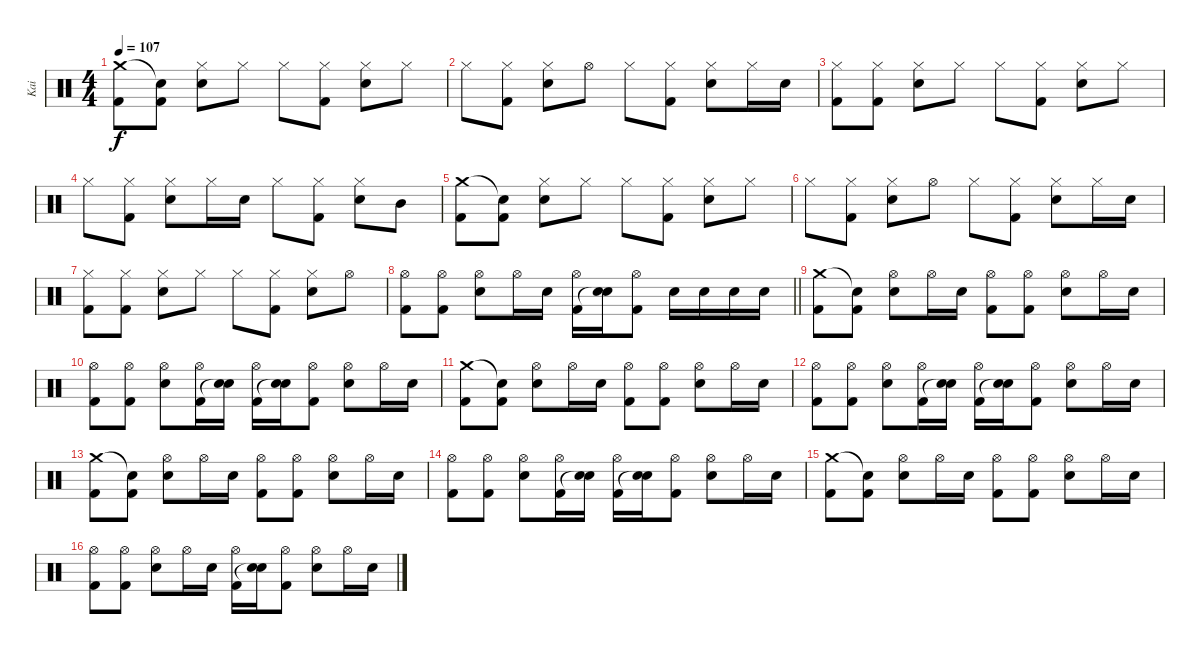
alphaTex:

\track ("Kai" "Kai") {instrument percussion}
\staff {score}
\articulation defaults
\ts (4 4)
\tempo 107
\clef neutral
\ks c
("Crash medium (hit)" "Kick (hit) 2").8{dy f} ("Snare (hit)"{t} "Kick (hit) 2").8 ("Hi-Hat (closed)" "Snare (hit) 2").8 "Hi-Hat (closed)".8 "Hi-Hat (closed)".8 ("Hi-Hat (closed)" "Kick (hit) 2").8 ("Hi-Hat (closed)" "Snare (hit) 2").8 "Hi-Hat (closed)".8 |
"Hi-Hat (closed)".8 ("Hi-Hat (closed)" "Kick (hit) 2").8 ("Hi-Hat (closed)" "Snare (hit) 2").8 "Hi-Hat (open)".8 "Hi-Hat (closed)".8 ("Hi-Hat (closed)" "Kick (hit) 2").8 ("Hi-Hat (closed)" "Snare (hit) 2").8 "Hi-Hat (closed)".16 "Snare (hit) 2".16 |
("Hi-Hat (closed)" "Kick (hit) 2").8 ("Hi-Hat (closed)" "Kick (hit) 2").8 ("Hi-Hat (closed)" "Snare (hit) 2").8 "Hi-Hat (closed)".8 "Hi-Hat (closed)".8 ("Hi-Hat (closed)" "Kick (hit) 2").8 ("Hi-Hat (closed)" "Snare (hit) 2").8 "Hi-Hat (closed)".8 |
"Hi-Hat (closed)".8 ("Hi-Hat (closed)" "Kick (hit) 2").8 ("Hi-Hat (closed)" "Snare (hit) 2").8 "Hi-Hat (closed)".16 "Snare (hit) 2".16 "Hi-Hat (closed)".8 ("Hi-Hat (closed)" "Kick (hit) 2").8 ("Hi-Hat (closed)" "Snare (hit) 2").8 "Mid Tom (hit)".8 |
("Crash medium (hit)" "Kick (hit) 2").8 ("Snare (hit)"{t} "Kick (hit) 2").8 ("Hi-Hat (closed)" "Snare (hit) 2").8 "Hi-Hat (closed)".8 "Hi-Hat (closed)".8 ("Hi-Hat (closed)" "Kick (hit) 2").8 ("Hi-Hat (closed)" "Snare (hit) 2").8 "Hi-Hat (closed)".8 |
"Hi-Hat (closed)".8 ("Hi-Hat (closed)" "Kick (hit) 2").8 ("Hi-Hat (closed)" "Snare (hit) 2").8 "Hi-Hat (open)".8 "Hi-Hat (closed)".8 ("Hi-Hat (closed)" "Kick (hit) 2").8 ("Hi-Hat (closed)" "Snare (hit) 2").8 "Hi-Hat (closed)".16 "Snare (hit) 2".16 |
("Hi-Hat (closed)" "Kick (hit) 2").8 ("Hi-Hat (closed)" "Kick (hit) 2").8 ("Hi-Hat (closed)" "Snare (hit) 2").8 "Hi-Hat (closed)".8 "Hi-Hat (closed)".8 ("Hi-Hat (closed)" "Kick (hit) 2").8 ("Hi-Hat (closed)" "Snare (hit) 2").8 "Hi-Hat (open)".8 |
\barLineRight lightlight
("Hi-Hat (open)" "Kick (hit) 2").8 ("Hi-Hat (open)" "Kick (hit) 2").8 ("Hi-Hat (open)" "Snare (hit) 2").8 "Hi-Hat (open)".16 "Snare (hit) 2".16 ("Hi-Hat (open)" "Kick (hit) 2").16 ("Snare (hit) 2" "Snare (hit)"{t}).16 ("Hi-Hat (open)" "Kick (hit) 2").8 "Snare (hit) 2".16 "Snare (hit) 2".16 "Snare (hit) 2".16 "Snare (hit) 2".16 |
("Crash medium (hit)" "Kick (hit) 2").8 ("Snare (hit)"{t} "Kick (hit) 2").8 ("Hi-Hat (open)" "Snare (hit) 2").8 "Hi-Hat (open)".16 "Snare (hit) 2".16 ("Hi-Hat (open)" "Kick (hit) 2").8 ("Hi-Hat (open)" "Kick (hit) 2").8 ("Hi-Hat (open)" "Snare (hit) 2").8 "Hi-Hat (open)".16 "Snare (hit) 2".16 |
("Hi-Hat (open)" "Kick (hit) 2").8 ("Hi-Hat (open)" "Kick (hit) 2").8 ("Hi-Hat (open)" "Snare (hit) 2").8 ("Hi-Hat (open)" "Kick (hit) 2").16 ("Snare (hit) 2" "Snare (hit)"{t}).16 ("Hi-Hat (open)" "Kick (hit) 2").16 ("Snare (hit) 2" "Snare (hit)"{t}).16 ("Hi-Hat (open)" "Kick (hit) 2").8 ("Hi-Hat (open)" "Snare (hit) 2").8 "Hi-Hat (open)".16 "Snare (hit) 2".16 |
("Crash medium (hit)" "Kick (hit) 2").8 ("Snare (hit)"{t} "Kick (hit) 2").8 ("Hi-Hat (open)" "Snare (hit) 2").8 "Hi-Hat (open)".16 "Snare (hit) 2".16 ("Hi-Hat (open)" "Kick (hit) 2").8 ("Hi-Hat (open)" "Kick (hit) 2").8 ("Hi-Hat (open)" "Snare (hit) 2").8 "Hi-Hat (open)".16 "Snare (hit) 2".16 |
("Hi-Hat (open)" "Kick (hit) 2").8 ("Hi-Hat (open)" "Kick (hit) 2").8 ("Hi-Hat (open)" "Snare (hit) 2").8 ("Hi-Hat (open)" "Kick (hit) 2").16 ("Snare (hit) 2" "Snare (hit)"{t}).16 ("Hi-Hat (open)" "Kick (hit) 2").16 ("Snare (hit) 2" "Snare (hit)"{t}).16 ("Hi-Hat (open)" "Kick (hit) 2").8 ("Hi-Hat (open)" "Snare (hit) 2").8 "Hi-Hat (open)".16 "Snare (hit) 2".16 |
("Crash medium (hit)" "Kick (hit) 2").8 ("Snare (hit)"{t} "Kick (hit) 2").8 ("Hi-Hat (open)" "Snare (hit) 2").8 "Hi-Hat (open)".16 "Snare (hit) 2".16 ("Hi-Hat (open)" "Kick (hit) 2").8 ("Hi-Hat (open)" "Kick (hit) 2").8 ("Hi-Hat (open)" "Snare (hit) 2").8 "Hi-Hat (open)".16 "Snare (hit) 2".16 |
("Hi-Hat (open)" "Kick (hit) 2").8 ("Hi-Hat (open)" "Kick (hit) 2").8 ("Hi-Hat (open)" "Snare (hit) 2").8 ("Hi-Hat (open)" "Kick (hit) 2").16 ("Snare (hit) 2" "Snare (hit)"{t}).16 ("Hi-Hat (open)" "Kick (hit) 2").16 ("Snare (hit) 2" "Snare (hit)"{t}).16 ("Hi-Hat (open)" "Kick (hit) 2").8 ("Hi-Hat (open)" "Snare (hit) 2").8 "Hi-Hat (open)".16 "Snare (hit) 2".16 |
("Crash medium (hit)" "Kick (hit) 2").8 ("Snare (hit)"{t} "Kick (hit) 2").8 ("Hi-Hat (open)" "Snare (hit) 2").8 "Hi-Hat (open)".16 "Snare (hit) 2".16 ("Hi-Hat (open)" "Kick (hit) 2").8 ("Hi-Hat (open)" "Kick (hit) 2").8 ("Hi-Hat (open)" "Snare (hit) 2").8 "Hi-Hat (open)".16 "Snare (hit) 2".16 |
("Hi-Hat (open)" "Kick (hit) 2").8 ("Hi-Hat (open)" "Kick (hit) 2").8 ("Hi-Hat (open)" "Snare (hit) 2").8 "Hi-Hat (open)".16 "Snare (hit) 2".16 ("Hi-Hat (open)" "Kick (hit) 2").16 ("Snare (hit) 2" "Snare (hit)"{t}).16 ("Hi-Hat (open)" "Kick (hit) 2").8 ("Hi-Hat (open)" "Snare (hit) 2").8 "Hi-Hat (open)".16 "Snare (hit) 2".16
